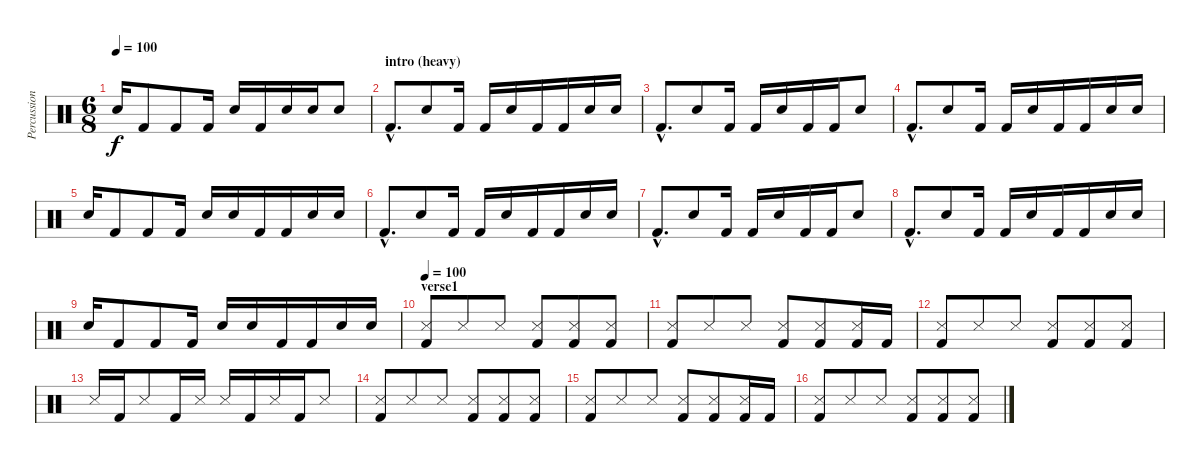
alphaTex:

\track ("Percussion" "Percussion") {instrument percussion}
\staff {score}
\articulation defaults
\ts (6 8)
\tempo 100
\clef neutral
\ks c "Snare (hit) 2".16{dy f} "Kick (hit) 2".8 "Kick (hit) 2".8 "Kick (hit) 2".16 "Snare (hit) 2".16 "Kick (hit) 2".16 "Snare (hit) 2".16 "Snare (hit) 2".16 "Snare (hit) 2".8
|
\section ("" "intro (heavy)")
"Kick (hit) 2"{hac}.8{d} "Snare (hit) 2".8 "Kick (hit) 2".16 "Kick (hit) 2".16 "Snare (hit) 2".16 "Kick (hit) 2".16 "Kick (hit) 2".16 "Snare (hit) 2".16 "Snare (hit) 2".16 |
"Kick (hit) 2"{hac}.8{d} "Snare (hit) 2".8 "Kick (hit) 2".16 "Kick (hit) 2".16 "Snare (hit) 2".16 "Kick (hit) 2".16 "Kick (hit) 2".16 "Snare (hit) 2".8 |
"Kick (hit) 2"{hac}.8{d} "Snare (hit) 2".8 "Kick (hit) 2".16 "Kick (hit) 2".16 "Snare (hit) 2".16 "Kick (hit) 2".16 "Kick (hit) 2".16 "Snare (hit) 2".16 "Snare (hit) 2".16 |
"Snare (hit) 2".16 "Kick (hit) 2".8 "Kick (hit) 2".8 "Kick (hit) 2".16 "Snare (hit) 2".16 "Snare (hit) 2".16 "Kick (hit) 2".16 "Kick (hit) 2".16 "Snare (hit) 2".16 "Snare (hit) 2".16 |
"Kick (hit) 2"{hac}.8{d} "Snare (hit) 2".8 "Kick (hit) 2".16 "Kick (hit) 2".16 "Snare (hit) 2".16 "Kick (hit) 2".16 "Kick (hit) 2".16 "Snare (hit) 2".16 "Snare (hit) 2".16 |
"Kick (hit) 2"{hac}.8{d} "Snare (hit) 2".8 "Kick (hit) 2".16 "Kick (hit) 2".16 "Snare (hit) 2".16 "Kick (hit) 2".16 "Kick (hit) 2".16 "Snare (hit) 2".8 |
"Kick (hit) 2"{hac}.8{d} "Snare (hit) 2".8 "Kick (hit) 2".16 "Kick (hit) 2".16 "Snare (hit) 2".16 "Kick (hit) 2".16 "Kick (hit) 2".16 "Snare (hit) 2".16 "Snare (hit) 2".16 |
"Snare (hit) 2".16 "Kick (hit) 2".8 "Kick (hit) 2".8 "Kick (hit) 2".16 "Snare (hit) 2".16 "Snare (hit) 2".16 "Kick (hit) 2".16 "Kick (hit) 2".16 "Snare (hit) 2".16 "Snare (hit) 2".16 |
\section ("" "verse1")
\tempo 100
("Snare (side stick) 3" "Kick (hit) 2").8 "Snare (side stick) 3".8 "Snare (side stick) 3".8 ("Snare (side stick) 3" "Kick (hit) 2").8 ("Snare (side stick) 3" "Kick (hit) 2").8 ("Snare (side stick) 3" "Kick (hit) 2").8 |
("Snare (side stick) 3" "Kick (hit) 2").8 "Snare (side stick) 3".8 "Snare (side stick) 3".8 ("Snare (side stick) 3" "Kick (hit) 2").8 ("Snare (side stick) 3" "Kick (hit) 2").8 ("Snare (side stick) 3" "Kick (hit) 2").16 "Kick (hit) 2".16 |
("Snare (side stick) 3" "Kick (hit) 2").8 "Snare (side stick) 3".8 "Snare (side stick) 3".8 ("Snare (side stick) 3" "Kick (hit) 2").8 ("Snare (side stick) 3" "Kick (hit) 2").8 ("Snare (side stick) 3" "Kick (hit) 2").8 |
"Snare (side stick) 3".16 "Kick (hit) 2".16 "Snare (side stick) 3".8 "Kick (hit) 2".16 "Snare (side stick) 3".16 "Snare (side stick) 3".16 "Kick (hit) 2".16 "Snare (side stick) 3".16 "Kick (hit) 2".16 "Snare (side stick) 3".8 |
("Snare (side stick) 3" "Kick (hit) 2").8 "Snare (side stick) 3".8 "Snare (side stick) 3".8 ("Snare (side stick) 3" "Kick (hit) 2").8 ("Snare (side stick) 3" "Kick (hit) 2").8 ("Snare (side stick) 3" "Kick (hit) 2").8 |
("Snare (side stick) 3" "Kick (hit) 2").8 "Snare (side stick) 3".8 "Snare (side stick) 3".8 ("Snare (side stick) 3" "Kick (hit) 2").8 ("Snare (side stick) 3" "Kick (hit) 2").8 ("Snare (side stick) 3" "Kick (hit) 2").16 "Kick (hit) 2".16 |
("Snare (side stick) 3" "Kick (hit) 2").8 "Snare (side stick) 3".8 "Snare (side stick) 3".8 ("Snare (side stick) 3" "Kick (hit) 2").8 ("Snare (side stick) 3" "Kick (hit) 2").8 ("Snare (side stick) 3" "Kick (hit) 2").8
